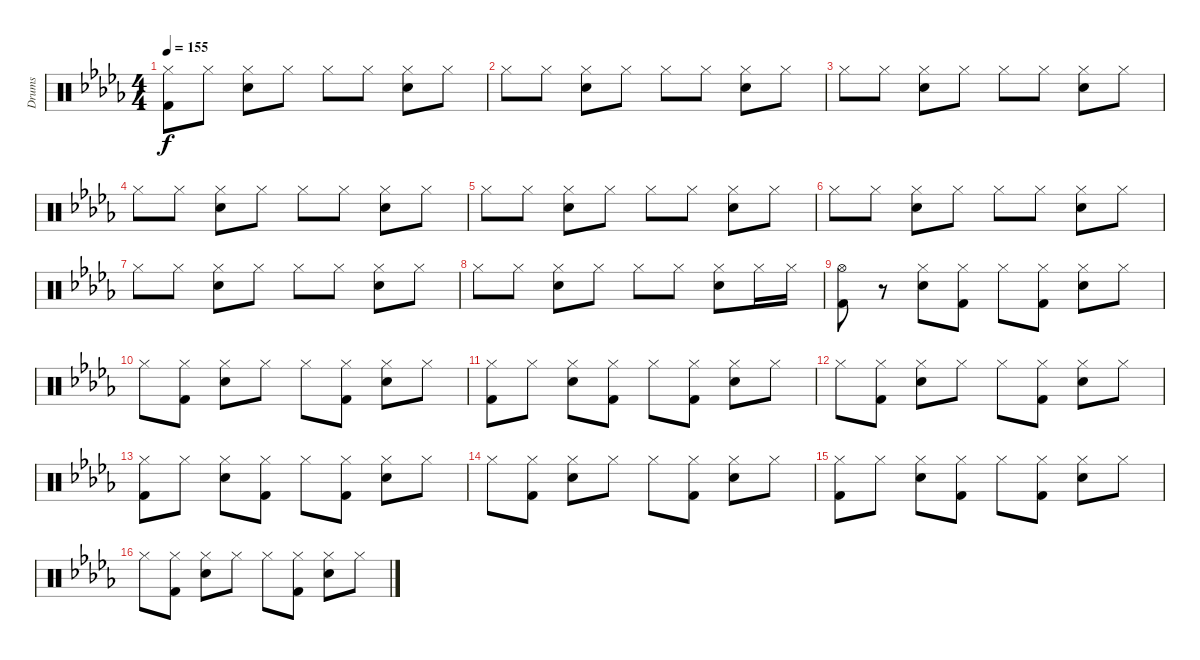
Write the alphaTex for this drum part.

\track ("Drums" "Drums") {instrument percussion}
\staff {score}
\articulation defaults
\ts (4 4)
\tempo 155
\clef neutral
\ks db
("Hi-Hat (closed)" "Kick (hit) 2").8{dy f} "Hi-Hat (closed)".8 ("Hi-Hat (closed)" "Electric Snare (hit)").8 "Hi-Hat (closed)".8 "Hi-Hat (closed)".8 "Hi-Hat (closed)".8 ("Hi-Hat (closed)" "Electric Snare (hit)").8 "Hi-Hat (closed)".8 |
"Hi-Hat (closed)".8 "Hi-Hat (closed)".8 ("Hi-Hat (closed)" "Electric Snare (hit)").8 "Hi-Hat (closed)".8 "Hi-Hat (closed)".8 "Hi-Hat (closed)".8 ("Hi-Hat (closed)" "Electric Snare (hit)").8 "Hi-Hat (closed)".8 |
"Hi-Hat (closed)".8 "Hi-Hat (closed)".8 ("Hi-Hat (closed)" "Electric Snare (hit)").8 "Hi-Hat (closed)".8 "Hi-Hat (closed)".8 "Hi-Hat (closed)".8 ("Hi-Hat (closed)" "Electric Snare (hit)").8 "Hi-Hat (closed)".8 |
"Hi-Hat (closed)".8 "Hi-Hat (closed)".8 ("Hi-Hat (closed)" "Electric Snare (hit)").8 "Hi-Hat (closed)".8 "Hi-Hat (closed)".8 "Hi-Hat (closed)".8 ("Hi-Hat (closed)" "Electric Snare (hit)").8 "Hi-Hat (closed)".8 |
"Hi-Hat (closed)".8 "Hi-Hat (closed)".8 ("Hi-Hat (closed)" "Electric Snare (hit)").8 "Hi-Hat (closed)".8 "Hi-Hat (closed)".8 "Hi-Hat (closed)".8 ("Hi-Hat (closed)" "Electric Snare (hit)").8 "Hi-Hat (closed)".8 |
"Hi-Hat (closed)".8 "Hi-Hat (closed)".8 ("Hi-Hat (closed)" "Electric Snare (hit)").8 "Hi-Hat (closed)".8 "Hi-Hat (closed)".8 "Hi-Hat (closed)".8 ("Hi-Hat (closed)" "Electric Snare (hit)").8 "Hi-Hat (closed)".8 |
"Hi-Hat (closed)".8 "Hi-Hat (closed)".8 ("Hi-Hat (closed)" "Electric Snare (hit)").8 "Hi-Hat (closed)".8 "Hi-Hat (closed)".8 "Hi-Hat (closed)".8 ("Hi-Hat (closed)" "Electric Snare (hit)").8 "Hi-Hat (closed)".8 |
"Hi-Hat (closed)".8 "Hi-Hat (closed)".8 ("Hi-Hat (closed)" "Electric Snare (hit)").8 "Hi-Hat (closed)".8 "Hi-Hat (closed)".8 "Hi-Hat (closed)".8 ("Hi-Hat (closed)" "Electric Snare (hit)").8 "Hi-Hat (closed)".16 "Hi-Hat (closed)".16 |
("Hi-Hat (open)" "Kick (hit) 2").8 r.8 ("Hi-Hat (closed)" "Electric Snare (hit)").8 ("Hi-Hat (closed)" "Kick (hit) 2").8 "Hi-Hat (closed)".8 ("Hi-Hat (closed)" "Kick (hit) 2").8 ("Hi-Hat (closed)" "Electric Snare (hit)").8 "Hi-Hat (closed)".8 |
"Hi-Hat (closed)".8 ("Hi-Hat (closed)" "Kick (hit) 2").8 ("Hi-Hat (closed)" "Electric Snare (hit)").8 "Hi-Hat (closed)".8 "Hi-Hat (closed)".8 ("Hi-Hat (closed)" "Kick (hit) 2").8 ("Hi-Hat (closed)" "Electric Snare (hit)").8 "Hi-Hat (closed)".8 |
("Hi-Hat (closed)" "Kick (hit) 2").8 "Hi-Hat (closed)".8 ("Hi-Hat (closed)" "Electric Snare (hit)").8 ("Hi-Hat (closed)" "Kick (hit) 2").8 "Hi-Hat (closed)".8 ("Hi-Hat (closed)" "Kick (hit) 2").8 ("Hi-Hat (closed)" "Electric Snare (hit)").8 "Hi-Hat (closed)".8 |
"Hi-Hat (closed)".8 ("Hi-Hat (closed)" "Kick (hit) 2").8 ("Hi-Hat (closed)" "Electric Snare (hit)").8 "Hi-Hat (closed)".8 "Hi-Hat (closed)".8 ("Hi-Hat (closed)" "Kick (hit) 2").8 ("Hi-Hat (closed)" "Electric Snare (hit)").8 "Hi-Hat (closed)".8 |
("Hi-Hat (closed)" "Kick (hit) 2").8 "Hi-Hat (closed)".8 ("Hi-Hat (closed)" "Electric Snare (hit)").8 ("Hi-Hat (closed)" "Kick (hit) 2").8 "Hi-Hat (closed)".8 ("Hi-Hat (closed)" "Kick (hit) 2").8 ("Hi-Hat (closed)" "Electric Snare (hit)").8 "Hi-Hat (closed)".8 |
"Hi-Hat (closed)".8 ("Hi-Hat (closed)" "Kick (hit) 2").8 ("Hi-Hat (closed)" "Electric Snare (hit)").8 "Hi-Hat (closed)".8 "Hi-Hat (closed)".8 ("Hi-Hat (closed)" "Kick (hit) 2").8 ("Hi-Hat (closed)" "Electric Snare (hit)").8 "Hi-Hat (closed)".8 |
("Hi-Hat (closed)" "Kick (hit) 2").8 "Hi-Hat (closed)".8 ("Hi-Hat (closed)" "Electric Snare (hit)").8 ("Hi-Hat (closed)" "Kick (hit) 2").8 "Hi-Hat (closed)".8 ("Hi-Hat (closed)" "Kick (hit) 2").8 ("Hi-Hat (closed)" "Electric Snare (hit)").8 "Hi-Hat (closed)".8 |
"Hi-Hat (closed)".8 ("Hi-Hat (closed)" "Kick (hit) 2").8 ("Hi-Hat (closed)" "Electric Snare (hit)").8 "Hi-Hat (closed)".8 "Hi-Hat (closed)".8 ("Hi-Hat (closed)" "Kick (hit) 2").8 ("Hi-Hat (closed)" "Electric Snare (hit)").8 "Hi-Hat (closed)".8
